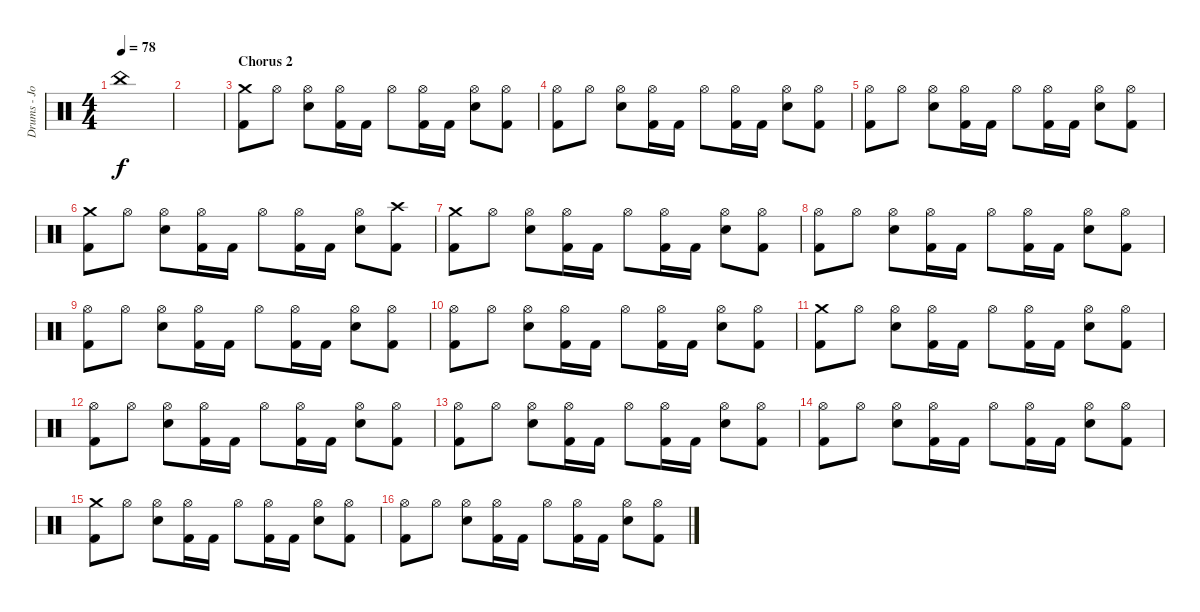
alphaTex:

\track ("Drums - Jorg Michael" "Drums - Jo") {instrument percussion}
\staff {score}
\articulation defaults
\ts (4 4)
\tempo 78
\clef neutral
\ks c "China (hit)".1{dy f}
|
|
\section ("" "Chorus 2")
("Crash medium (hit)" "Kick (hit) 2").8 "Hi-Hat (open)".8 ("Hi-Hat (open)" "Electric Snare (hit)").8 ("Hi-Hat (open)" "Kick (hit) 2").16 "Kick (hit) 2".16 "Hi-Hat (open)".8 ("Hi-Hat (open)" "Kick (hit) 2").16 "Kick (hit) 2".16 ("Hi-Hat (open)" "Electric Snare (hit)").8 ("Hi-Hat (open)" "Kick (hit) 2").8 |
("Hi-Hat (open)" "Kick (hit) 2").8 "Hi-Hat (open)".8 ("Hi-Hat (open)" "Electric Snare (hit)").8 ("Hi-Hat (open)" "Kick (hit) 2").16 "Kick (hit) 2".16 "Hi-Hat (open)".8 ("Hi-Hat (open)" "Kick (hit) 2").16 "Kick (hit) 2".16 ("Hi-Hat (open)" "Electric Snare (hit)").8 ("Hi-Hat (open)" "Kick (hit) 2").8 |
("Hi-Hat (open)" "Kick (hit) 2").8 "Hi-Hat (open)".8 ("Hi-Hat (open)" "Electric Snare (hit)").8 ("Hi-Hat (open)" "Kick (hit) 2").16 "Kick (hit) 2".16 "Hi-Hat (open)".8 ("Hi-Hat (open)" "Kick (hit) 2").16 "Kick (hit) 2".16 ("Hi-Hat (open)" "Electric Snare (hit)").8 ("Hi-Hat (open)" "Kick (hit) 2").8 |
("Crash medium (hit)" "Kick (hit) 2").8 "Hi-Hat (open)".8 ("Hi-Hat (open)" "Electric Snare (hit)").8 ("Hi-Hat (open)" "Kick (hit) 2").16 "Kick (hit) 2".16 "Hi-Hat (open)".8 ("Hi-Hat (open)" "Kick (hit) 2").16 "Kick (hit) 2".16 ("Hi-Hat (open)" "Electric Snare (hit)").8 ("Crash high (hit)" "Kick (hit) 2").8 |
("Crash medium (hit)" "Kick (hit) 2").8 "Hi-Hat (open)".8 ("Hi-Hat (open)" "Electric Snare (hit)").8 ("Hi-Hat (open)" "Kick (hit) 2").16 "Kick (hit) 2".16 "Hi-Hat (open)".8 ("Hi-Hat (open)" "Kick (hit) 2").16 "Kick (hit) 2".16 ("Hi-Hat (open)" "Electric Snare (hit)").8 ("Hi-Hat (open)" "Kick (hit) 2").8 |
("Hi-Hat (open)" "Kick (hit) 2").8 "Hi-Hat (open)".8 ("Hi-Hat (open)" "Electric Snare (hit)").8 ("Hi-Hat (open)" "Kick (hit) 2").16 "Kick (hit) 2".16 "Hi-Hat (open)".8 ("Hi-Hat (open)" "Kick (hit) 2").16 "Kick (hit) 2".16 ("Hi-Hat (open)" "Electric Snare (hit)").8 ("Hi-Hat (open)" "Kick (hit) 2").8 |
("Hi-Hat (open)" "Kick (hit) 2").8 "Hi-Hat (open)".8 ("Hi-Hat (open)" "Electric Snare (hit)").8 ("Hi-Hat (open)" "Kick (hit) 2").16 "Kick (hit) 2".16 "Hi-Hat (open)".8 ("Hi-Hat (open)" "Kick (hit) 2").16 "Kick (hit) 2".16 ("Hi-Hat (open)" "Electric Snare (hit)").8 ("Hi-Hat (open)" "Kick (hit) 2").8 |
("Hi-Hat (open)" "Kick (hit) 2").8 "Hi-Hat (open)".8 ("Hi-Hat (open)" "Electric Snare (hit)").8 ("Hi-Hat (open)" "Kick (hit) 2").16 "Kick (hit) 2".16 "Hi-Hat (open)".8 ("Hi-Hat (open)" "Kick (hit) 2").16 "Kick (hit) 2".16 ("Hi-Hat (open)" "Electric Snare (hit)").8 ("Hi-Hat (open)" "Kick (hit) 2").8 |
("Crash medium (hit)" "Kick (hit) 2").8 "Hi-Hat (open)".8 ("Hi-Hat (open)" "Electric Snare (hit)").8 ("Hi-Hat (open)" "Kick (hit) 2").16 "Kick (hit) 2".16 "Hi-Hat (open)".8 ("Hi-Hat (open)" "Kick (hit) 2").16 "Kick (hit) 2".16 ("Hi-Hat (open)" "Electric Snare (hit)").8 ("Hi-Hat (open)" "Kick (hit) 2").8 |
("Hi-Hat (open)" "Kick (hit) 2").8 "Hi-Hat (open)".8 ("Hi-Hat (open)" "Electric Snare (hit)").8 ("Hi-Hat (open)" "Kick (hit) 2").16 "Kick (hit) 2".16 "Hi-Hat (open)".8 ("Hi-Hat (open)" "Kick (hit) 2").16 "Kick (hit) 2".16 ("Hi-Hat (open)" "Electric Snare (hit)").8 ("Hi-Hat (open)" "Kick (hit) 2").8 |
("Hi-Hat (open)" "Kick (hit) 2").8 "Hi-Hat (open)".8 ("Hi-Hat (open)" "Electric Snare (hit)").8 ("Hi-Hat (open)" "Kick (hit) 2").16 "Kick (hit) 2".16 "Hi-Hat (open)".8 ("Hi-Hat (open)" "Kick (hit) 2").16 "Kick (hit) 2".16 ("Hi-Hat (open)" "Electric Snare (hit)").8 ("Hi-Hat (open)" "Kick (hit) 2").8 |
("Hi-Hat (open)" "Kick (hit) 2").8 "Hi-Hat (open)".8 ("Hi-Hat (open)" "Electric Snare (hit)").8 ("Hi-Hat (open)" "Kick (hit) 2").16 "Kick (hit) 2".16 "Hi-Hat (open)".8 ("Hi-Hat (open)" "Kick (hit) 2").16 "Kick (hit) 2".16 ("Hi-Hat (open)" "Electric Snare (hit)").8 ("Hi-Hat (open)" "Kick (hit) 2").8 |
("Crash medium (hit)" "Kick (hit) 2").8 "Hi-Hat (open)".8 ("Hi-Hat (open)" "Electric Snare (hit)").8 ("Hi-Hat (open)" "Kick (hit) 2").16 "Kick (hit) 2".16 "Hi-Hat (open)".8 ("Hi-Hat (open)" "Kick (hit) 2").16 "Kick (hit) 2".16 ("Hi-Hat (open)" "Electric Snare (hit)").8 ("Hi-Hat (open)" "Kick (hit) 2").8 |
("Hi-Hat (open)" "Kick (hit) 2").8 "Hi-Hat (open)".8 ("Hi-Hat (open)" "Electric Snare (hit)").8 ("Hi-Hat (open)" "Kick (hit) 2").16 "Kick (hit) 2".16 "Hi-Hat (open)".8 ("Hi-Hat (open)" "Kick (hit) 2").16 "Kick (hit) 2".16 ("Hi-Hat (open)" "Electric Snare (hit)").8 ("Hi-Hat (open)" "Kick (hit) 2").8
